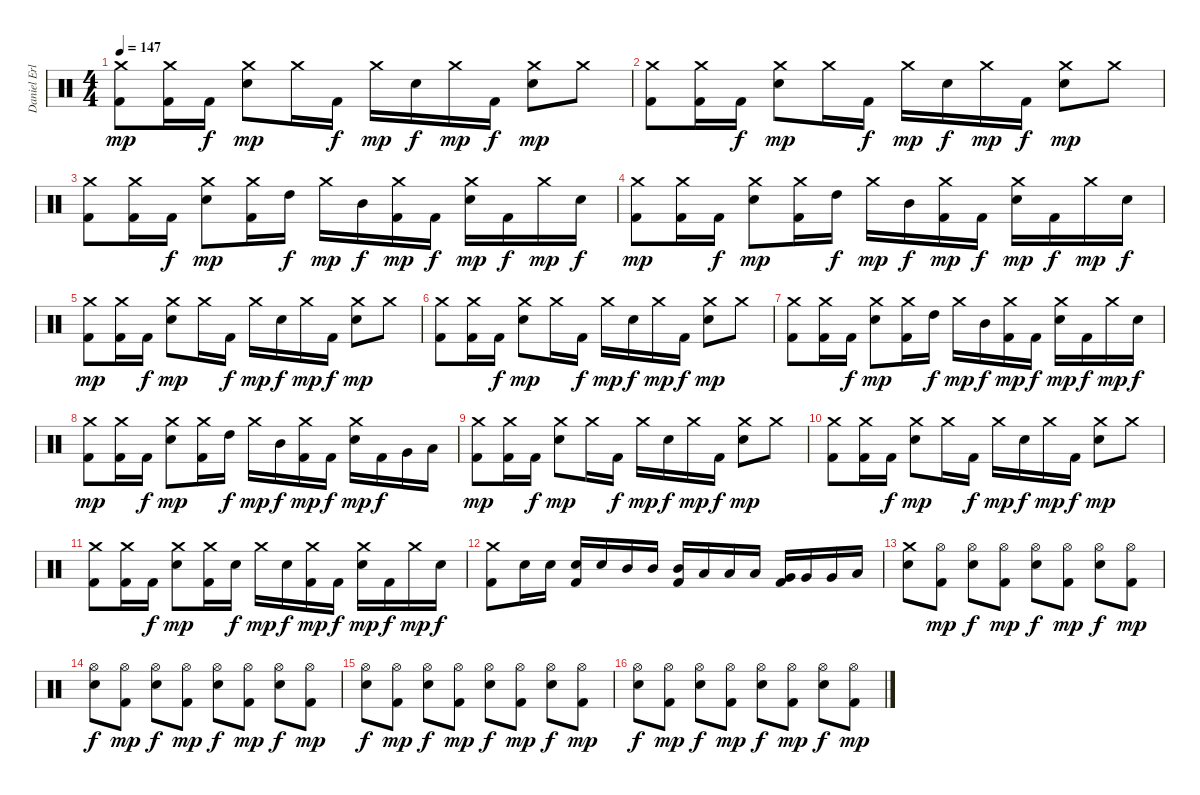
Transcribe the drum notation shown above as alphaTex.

\track ("Daniel Erlandsson" "Daniel Erl") {instrument percussion}
\staff {score}
\articulation defaults
\ts (4 4)
\tempo 147
\clef neutral
\ks c
("Crash medium (hit)" "Kick (hit) 2").8{dy mp} ("Crash medium (hit)" "Kick (hit) 2").16 "Kick (hit) 2".16{dy f} ("Crash medium (hit)" "Electric Snare (hit)").8{dy mp} "Crash medium (hit)".16 "Kick (hit) 2".16{dy f} "Crash medium (hit)".16{dy mp} "Electric Snare (hit)".16{dy f} "Crash medium (hit)".16{dy mp} "Kick (hit) 2".16{dy f} ("Crash medium (hit)" "Electric Snare (hit)").8{dy mp} "Crash medium (hit)".8 |
("Crash medium (hit)" "Kick (hit) 2").8 ("Crash medium (hit)" "Kick (hit) 2").16 "Kick (hit) 2".16{dy f} ("Crash medium (hit)" "Electric Snare (hit)").8{dy mp} "Crash medium (hit)".16 "Kick (hit) 2".16{dy f} "Crash medium (hit)".16{dy mp} "Electric Snare (hit)".16{dy f} "Crash medium (hit)".16{dy mp} "Kick (hit) 2".16{dy f} ("Crash medium (hit)" "Electric Snare (hit)").8{dy mp} "Crash medium (hit)".8 |
("Crash medium (hit)" "Kick (hit) 2").8 ("Crash medium (hit)" "Kick (hit) 2").16 "Kick (hit) 2".16{dy f} ("Crash medium (hit)" "Electric Snare (hit)").8{dy mp} ("Crash medium (hit)" "Kick (hit) 2").16 "High Tom (hit)".16{dy f} "Crash medium (hit)".16{dy mp} "Mid Tom (hit)".16{dy f} ("Crash medium (hit)" "Kick (hit) 2").16{dy mp} "Kick (hit) 2".16{dy f} ("Crash medium (hit)" "Electric Snare (hit)").16{dy mp} "Kick (hit) 2".16{dy f} "Crash medium (hit)".16{dy mp} "Electric Snare (hit)".16{dy f} |
("Crash medium (hit)" "Kick (hit) 2").8{dy mp} ("Crash medium (hit)" "Kick (hit) 2").16 "Kick (hit) 2".16{dy f} ("Crash medium (hit)" "Electric Snare (hit)").8{dy mp} ("Crash medium (hit)" "Kick (hit) 2").16 "High Tom (hit)".16{dy f} "Crash medium (hit)".16{dy mp} "Mid Tom (hit)".16{dy f} ("Crash medium (hit)" "Kick (hit) 2").16{dy mp} "Kick (hit) 2".16{dy f} ("Crash medium (hit)" "Electric Snare (hit)").16{dy mp} "Kick (hit) 2".16{dy f} "Crash medium (hit)".16{dy mp} "Electric Snare (hit)".16{dy f} |
("Crash medium (hit)" "Kick (hit) 2").8{dy mp} ("Crash medium (hit)" "Kick (hit) 2").16 "Kick (hit) 2".16{dy f} ("Crash medium (hit)" "Electric Snare (hit)").8{dy mp} "Crash medium (hit)".16 "Kick (hit) 2".16{dy f} "Crash medium (hit)".16{dy mp} "Electric Snare (hit)".16{dy f} "Crash medium (hit)".16{dy mp} "Kick (hit) 2".16{dy f} ("Crash medium (hit)" "Electric Snare (hit)").8{dy mp} "Crash medium (hit)".8 |
("Crash medium (hit)" "Kick (hit) 2").8 ("Crash medium (hit)" "Kick (hit) 2").16 "Kick (hit) 2".16{dy f} ("Crash medium (hit)" "Electric Snare (hit)").8{dy mp} "Crash medium (hit)".16 "Kick (hit) 2".16{dy f} "Crash medium (hit)".16{dy mp} "Electric Snare (hit)".16{dy f} "Crash medium (hit)".16{dy mp} "Kick (hit) 2".16{dy f} ("Crash medium (hit)" "Electric Snare (hit)").8{dy mp} "Crash medium (hit)".8 |
("Crash medium (hit)" "Kick (hit) 2").8 ("Crash medium (hit)" "Kick (hit) 2").16 "Kick (hit) 2".16{dy f} ("Crash medium (hit)" "Electric Snare (hit)").8{dy mp} ("Crash medium (hit)" "Kick (hit) 2").16 "High Tom (hit)".16{dy f} "Crash medium (hit)".16{dy mp} "Mid Tom (hit)".16{dy f} ("Crash medium (hit)" "Kick (hit) 2").16{dy mp} "Kick (hit) 2".16{dy f} ("Crash medium (hit)" "Electric Snare (hit)").16{dy mp} "Kick (hit) 2".16{dy f} "Crash medium (hit)".16{dy mp} "Electric Snare (hit)".16{dy f} |
("Crash medium (hit)" "Kick (hit) 2").8{dy mp} ("Crash medium (hit)" "Kick (hit) 2").16 "Kick (hit) 2".16{dy f} ("Crash medium (hit)" "Electric Snare (hit)").8{dy mp} ("Crash medium (hit)" "Kick (hit) 2").16 "High Tom (hit)".16{dy f} "Crash medium (hit)".16{dy mp} "Mid Tom (hit)".16{dy f} ("Crash medium (hit)" "Kick (hit) 2").16{dy mp} "Kick (hit) 2".16{dy f} ("Crash medium (hit)" "Electric Snare (hit)").16{dy mp} "Kick (hit) 2".16{dy f} "Very Low Tom (hit)".16 "Low Floor Tom (hit)".16 |
("Crash medium (hit)" "Kick (hit) 2").8{dy mp} ("Crash medium (hit)" "Kick (hit) 2").16 "Kick (hit) 2".16{dy f} ("Crash medium (hit)" "Electric Snare (hit)").8{dy mp} "Crash medium (hit)".16 "Kick (hit) 2".16{dy f} "Crash medium (hit)".16{dy mp} "Electric Snare (hit)".16{dy f} "Crash medium (hit)".16{dy mp} "Kick (hit) 2".16{dy f} ("Crash medium (hit)" "Electric Snare (hit)").8{dy mp} "Crash medium (hit)".8 |
("Crash medium (hit)" "Kick (hit) 2").8 ("Crash medium (hit)" "Kick (hit) 2").16 "Kick (hit) 2".16{dy f} ("Crash medium (hit)" "Electric Snare (hit)").8{dy mp} "Crash medium (hit)".16 "Kick (hit) 2".16{dy f} "Crash medium (hit)".16{dy mp} "Electric Snare (hit)".16{dy f} "Crash medium (hit)".16{dy mp} "Kick (hit) 2".16{dy f} ("Crash medium (hit)" "Electric Snare (hit)").8{dy mp} "Crash medium (hit)".8 |
("Crash medium (hit)" "Kick (hit) 2").8 ("Crash medium (hit)" "Kick (hit) 2").16 "Kick (hit) 2".16{dy f} ("Crash medium (hit)" "Electric Snare (hit)").8{dy mp} ("Crash medium (hit)" "Kick (hit) 2").16 "Electric Snare (hit)".16{dy f} "Crash medium (hit)".16{dy mp} "Electric Snare (hit)".16{dy f} ("Crash medium (hit)" "Kick (hit) 2").16{dy mp} "Kick (hit) 2".16{dy f} ("Crash medium (hit)" "Electric Snare (hit)").16{dy mp} "Kick (hit) 2".16{dy f} "Crash medium (hit)".16{dy mp} "Electric Snare (hit)".16{dy f} |
("Crash medium (hit)" "Kick (hit) 2").8 "Electric Snare (hit)".16 "Electric Snare (hit)".16 ("Electric Snare (hit)" "Kick (hit) 2").16 "Electric Snare (hit)".16 "Mid Tom (hit)".16 "Mid Tom (hit)".16 ("Mid Tom (hit)" "Kick (hit) 2").16 "Low Tom (hit)".16 "Low Tom (hit)".16 "Low Tom (hit)".16 ("Very Low Tom (hit)" "Kick (hit) 2").16 "Very Low Tom (hit)".16 "Very Low Tom (hit)".16 "Low Floor Tom (hit)".16 |
("Crash medium (hit)" "Electric Snare (hit)").8 ("Hi-Hat (open)" "Kick (hit) 2").8{dy mp} ("Hi-Hat (open)" "Electric Snare (hit)").8{dy f} ("Hi-Hat (open)" "Kick (hit) 2").8{dy mp} ("Hi-Hat (open)" "Electric Snare (hit)").8{dy f} ("Hi-Hat (open)" "Kick (hit) 2").8{dy mp} ("Hi-Hat (open)" "Electric Snare (hit)").8{dy f} ("Hi-Hat (open)" "Kick (hit) 2").8{dy mp} |
("Hi-Hat (open)" "Electric Snare (hit)").8{dy f} ("Hi-Hat (open)" "Kick (hit) 2").8{dy mp} ("Hi-Hat (open)" "Electric Snare (hit)").8{dy f} ("Hi-Hat (open)" "Kick (hit) 2").8{dy mp} ("Hi-Hat (open)" "Electric Snare (hit)").8{dy f} ("Hi-Hat (open)" "Kick (hit) 2").8{dy mp} ("Hi-Hat (open)" "Electric Snare (hit)").8{dy f} ("Hi-Hat (open)" "Kick (hit) 2").8{dy mp} |
("Hi-Hat (open)" "Electric Snare (hit)").8{dy f} ("Hi-Hat (open)" "Kick (hit) 2").8{dy mp} ("Hi-Hat (open)" "Electric Snare (hit)").8{dy f} ("Hi-Hat (open)" "Kick (hit) 2").8{dy mp} ("Hi-Hat (open)" "Electric Snare (hit)").8{dy f} ("Hi-Hat (open)" "Kick (hit) 2").8{dy mp} ("Hi-Hat (open)" "Electric Snare (hit)").8{dy f} ("Hi-Hat (open)" "Kick (hit) 2").8{dy mp} |
("Hi-Hat (open)" "Electric Snare (hit)").8{dy f} ("Hi-Hat (open)" "Kick (hit) 2").8{dy mp} ("Hi-Hat (open)" "Electric Snare (hit)").8{dy f} ("Hi-Hat (open)" "Kick (hit) 2").8{dy mp} ("Hi-Hat (open)" "Electric Snare (hit)").8{dy f} ("Hi-Hat (open)" "Kick (hit) 2").8{dy mp} ("Hi-Hat (open)" "Electric Snare (hit)").8{dy f} ("Hi-Hat (open)" "Kick (hit) 2").8{dy mp}
